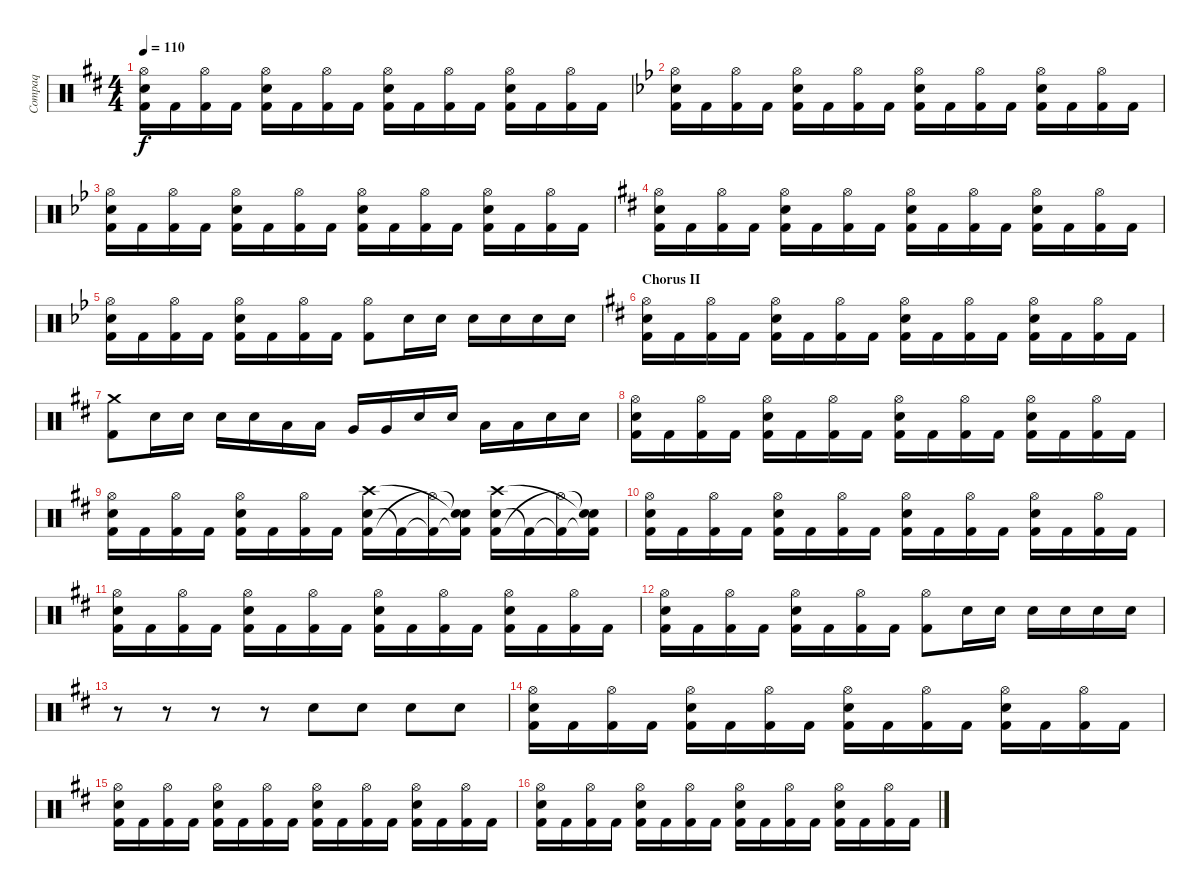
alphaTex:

\track ("Compaq" "Compaq") {instrument percussion}
\staff {score}
\articulation defaults
\ts (4 4)
\tempo 110
\clef neutral
\ks bminor
("Electric Snare (hit)" "Kick (hit) 2" "Hi-Hat (open)").16{dy f} "Kick (hit) 2".16 ("Kick (hit) 2" "Hi-Hat (open)").16 "Kick (hit) 2".16 ("Electric Snare (hit)" "Kick (hit) 2" "Hi-Hat (open)").16 "Kick (hit) 2".16 ("Kick (hit) 2" "Hi-Hat (open)").16 "Kick (hit) 2".16 ("Electric Snare (hit)" "Kick (hit) 2" "Hi-Hat (open)").16 "Kick (hit) 2".16 ("Kick (hit) 2" "Hi-Hat (open)").16 "Kick (hit) 2".16 ("Electric Snare (hit)" "Kick (hit) 2" "Hi-Hat (open)").16 "Kick (hit) 2".16 ("Kick (hit) 2" "Hi-Hat (open)").16 "Kick (hit) 2".16 |
\ks bb
("Electric Snare (hit)" "Kick (hit) 2" "Hi-Hat (open)").16 "Kick (hit) 2".16 ("Kick (hit) 2" "Hi-Hat (open)").16 "Kick (hit) 2".16 ("Electric Snare (hit)" "Kick (hit) 2" "Hi-Hat (open)").16 "Kick (hit) 2".16 ("Kick (hit) 2" "Hi-Hat (open)").16 "Kick (hit) 2".16 ("Electric Snare (hit)" "Kick (hit) 2" "Hi-Hat (open)").16 "Kick (hit) 2".16 ("Kick (hit) 2" "Hi-Hat (open)").16 "Kick (hit) 2".16 ("Electric Snare (hit)" "Kick (hit) 2" "Hi-Hat (open)").16 "Kick (hit) 2".16 ("Kick (hit) 2" "Hi-Hat (open)").16 "Kick (hit) 2".16 |
("Electric Snare (hit)" "Kick (hit) 2" "Hi-Hat (open)").16 "Kick (hit) 2".16 ("Kick (hit) 2" "Hi-Hat (open)").16 "Kick (hit) 2".16 ("Electric Snare (hit)" "Kick (hit) 2" "Hi-Hat (open)").16 "Kick (hit) 2".16 ("Kick (hit) 2" "Hi-Hat (open)").16 "Kick (hit) 2".16 ("Electric Snare (hit)" "Kick (hit) 2" "Hi-Hat (open)").16 "Kick (hit) 2".16 ("Kick (hit) 2" "Hi-Hat (open)").16 "Kick (hit) 2".16 ("Electric Snare (hit)" "Kick (hit) 2" "Hi-Hat (open)").16 "Kick (hit) 2".16 ("Kick (hit) 2" "Hi-Hat (open)").16 "Kick (hit) 2".16 |
\ks bminor
("Electric Snare (hit)" "Kick (hit) 2" "Hi-Hat (open)").16 "Kick (hit) 2".16 ("Kick (hit) 2" "Hi-Hat (open)").16 "Kick (hit) 2".16 ("Electric Snare (hit)" "Kick (hit) 2" "Hi-Hat (open)").16 "Kick (hit) 2".16 ("Kick (hit) 2" "Hi-Hat (open)").16 "Kick (hit) 2".16 ("Electric Snare (hit)" "Kick (hit) 2" "Hi-Hat (open)").16 "Kick (hit) 2".16 ("Kick (hit) 2" "Hi-Hat (open)").16 "Kick (hit) 2".16 ("Electric Snare (hit)" "Kick (hit) 2" "Hi-Hat (open)").16 "Kick (hit) 2".16 ("Kick (hit) 2" "Hi-Hat (open)").16 "Kick (hit) 2".16 |
\ks bb
("Electric Snare (hit)" "Kick (hit) 2" "Hi-Hat (open)").16 "Kick (hit) 2".16 ("Kick (hit) 2" "Hi-Hat (open)").16 "Kick (hit) 2".16 ("Electric Snare (hit)" "Kick (hit) 2" "Hi-Hat (open)").16 "Kick (hit) 2".16 ("Kick (hit) 2" "Hi-Hat (open)").16 "Kick (hit) 2".16 ("Hi-Hat (open)" "Kick (hit) 2").8 "Electric Snare (hit)".16 "Electric Snare (hit)".16 "Electric Snare (hit)".16 "Electric Snare (hit)".16 "Electric Snare (hit)".16 "Electric Snare (hit)".16 |
\section ("" "Chorus II")
\ks bminor
("Electric Snare (hit)" "Kick (hit) 2" "Hi-Hat (open)").16 "Kick (hit) 2".16 ("Kick (hit) 2" "Hi-Hat (open)").16 "Kick (hit) 2".16 ("Electric Snare (hit)" "Kick (hit) 2" "Hi-Hat (open)").16 "Kick (hit) 2".16 ("Kick (hit) 2" "Hi-Hat (open)").16 "Kick (hit) 2".16 ("Electric Snare (hit)" "Kick (hit) 2" "Hi-Hat (open)").16 "Kick (hit) 2".16 ("Kick (hit) 2" "Hi-Hat (open)").16 "Kick (hit) 2".16 ("Electric Snare (hit)" "Kick (hit) 2" "Hi-Hat (open)").16 "Kick (hit) 2".16 ("Kick (hit) 2" "Hi-Hat (open)").16 "Kick (hit) 2".16 |
("Crash medium (hit)" "Kick (hit) 2").8 "Electric Snare (hit)".16 "Electric Snare (hit)".16 "Electric Snare (hit)".16 "Electric Snare (hit)".16 "Low Tom (hit)".16 "Low Tom (hit)".16 "Very Low Tom (hit)".16 "Very Low Tom (hit)".16 "Electric Snare (hit)".16 "Electric Snare (hit)".16 "Low Floor Tom (hit)".16 "Low Floor Tom (hit)".16 "Electric Snare (hit)".16 "Electric Snare (hit)".16 |
("Electric Snare (hit)" "Kick (hit) 2" "Hi-Hat (open)").16 "Kick (hit) 2".16 ("Kick (hit) 2" "Hi-Hat (open)").16 "Kick (hit) 2".16 ("Electric Snare (hit)" "Kick (hit) 2" "Hi-Hat (open)").16 "Kick (hit) 2".16 ("Kick (hit) 2" "Hi-Hat (open)").16 "Kick (hit) 2".16 ("Electric Snare (hit)" "Kick (hit) 2" "Hi-Hat (open)").16 "Kick (hit) 2".16 ("Kick (hit) 2" "Hi-Hat (open)").16 "Kick (hit) 2".16 ("Electric Snare (hit)" "Kick (hit) 2" "Hi-Hat (open)").16 "Kick (hit) 2".16 ("Kick (hit) 2" "Hi-Hat (open)").16 "Kick (hit) 2".16 |
("Electric Snare (hit)" "Kick (hit) 2" "Hi-Hat (open)").16 "Kick (hit) 2".16 ("Kick (hit) 2" "Hi-Hat (open)").16 "Kick (hit) 2".16 ("Electric Snare (hit)" "Kick (hit) 2" "Hi-Hat (open)").16 "Kick (hit) 2".16 ("Kick (hit) 2" "Hi-Hat (open)").16 "Kick (hit) 2".16 ("Electric Snare (hit)" "Kick (hit) 2" "Crash high (hit)").16 "Kick (hit) 2"{t}.16 ("Kick (hit) 2"{t} "Hi-Hat (open)"{t}).16 ("Kick (hit) 2"{t} "Snare (hit)"{t} "Snare (hit)"{t}).16 ("Electric Snare (hit)" "Kick (hit) 2" "Crash high (hit)").16 "Kick (hit) 2"{t}.16 ("Kick (hit) 2"{t} "Hi-Hat (open)"{t}).16 ("Kick (hit) 2"{t} "Snare (hit)"{t} "Snare (hit)"{t}).16 |
("Electric Snare (hit)" "Kick (hit) 2" "Hi-Hat (open)").16 "Kick (hit) 2".16 ("Kick (hit) 2" "Hi-Hat (open)").16 "Kick (hit) 2".16 ("Electric Snare (hit)" "Kick (hit) 2" "Hi-Hat (open)").16 "Kick (hit) 2".16 ("Kick (hit) 2" "Hi-Hat (open)").16 "Kick (hit) 2".16 ("Electric Snare (hit)" "Kick (hit) 2" "Hi-Hat (open)").16 "Kick (hit) 2".16 ("Kick (hit) 2" "Hi-Hat (open)").16 "Kick (hit) 2".16 ("Electric Snare (hit)" "Kick (hit) 2" "Hi-Hat (open)").16 "Kick (hit) 2".16 ("Kick (hit) 2" "Hi-Hat (open)").16 "Kick (hit) 2".16 |
("Electric Snare (hit)" "Kick (hit) 2" "Hi-Hat (open)").16 "Kick (hit) 2".16 ("Kick (hit) 2" "Hi-Hat (open)").16 "Kick (hit) 2".16 ("Electric Snare (hit)" "Kick (hit) 2" "Hi-Hat (open)").16 "Kick (hit) 2".16 ("Kick (hit) 2" "Hi-Hat (open)").16 "Kick (hit) 2".16 ("Electric Snare (hit)" "Kick (hit) 2" "Hi-Hat (open)").16 "Kick (hit) 2".16 ("Kick (hit) 2" "Hi-Hat (open)").16 "Kick (hit) 2".16 ("Electric Snare (hit)" "Kick (hit) 2" "Hi-Hat (open)").16 "Kick (hit) 2".16 ("Kick (hit) 2" "Hi-Hat (open)").16 "Kick (hit) 2".16 |
("Electric Snare (hit)" "Kick (hit) 2" "Hi-Hat (open)").16 "Kick (hit) 2".16 ("Kick (hit) 2" "Hi-Hat (open)").16 "Kick (hit) 2".16 ("Electric Snare (hit)" "Kick (hit) 2" "Hi-Hat (open)").16 "Kick (hit) 2".16 ("Kick (hit) 2" "Hi-Hat (open)").16 "Kick (hit) 2".16 ("Hi-Hat (open)" "Kick (hit) 2").8 "Electric Snare (hit)".16 "Electric Snare (hit)".16 "Electric Snare (hit)".16 "Electric Snare (hit)".16 "Electric Snare (hit)".16 "Electric Snare (hit)".16 |
r.8 r.8 r.8 r.8 "Electric Snare (hit)".8 "Electric Snare (hit)".8 "Electric Snare (hit)".8 "Electric Snare (hit)".8 |
("Electric Snare (hit)" "Kick (hit) 2" "Hi-Hat (open)").16 "Kick (hit) 2".16 ("Kick (hit) 2" "Hi-Hat (open)").16 "Kick (hit) 2".16 ("Electric Snare (hit)" "Kick (hit) 2" "Hi-Hat (open)").16 "Kick (hit) 2".16 ("Kick (hit) 2" "Hi-Hat (open)").16 "Kick (hit) 2".16 ("Electric Snare (hit)" "Kick (hit) 2" "Hi-Hat (open)").16 "Kick (hit) 2".16 ("Kick (hit) 2" "Hi-Hat (open)").16 "Kick (hit) 2".16 ("Electric Snare (hit)" "Kick (hit) 2" "Hi-Hat (open)").16 "Kick (hit) 2".16 ("Kick (hit) 2" "Hi-Hat (open)").16 "Kick (hit) 2".16 |
("Electric Snare (hit)" "Kick (hit) 2" "Hi-Hat (open)").16 "Kick (hit) 2".16 ("Kick (hit) 2" "Hi-Hat (open)").16 "Kick (hit) 2".16 ("Electric Snare (hit)" "Kick (hit) 2" "Hi-Hat (open)").16 "Kick (hit) 2".16 ("Kick (hit) 2" "Hi-Hat (open)").16 "Kick (hit) 2".16 ("Electric Snare (hit)" "Kick (hit) 2" "Hi-Hat (open)").16 "Kick (hit) 2".16 ("Kick (hit) 2" "Hi-Hat (open)").16 "Kick (hit) 2".16 ("Electric Snare (hit)" "Kick (hit) 2" "Hi-Hat (open)").16 "Kick (hit) 2".16 ("Kick (hit) 2" "Hi-Hat (open)").16 "Kick (hit) 2".16 |
("Electric Snare (hit)" "Kick (hit) 2" "Hi-Hat (open)").16 "Kick (hit) 2".16 ("Kick (hit) 2" "Hi-Hat (open)").16 "Kick (hit) 2".16 ("Electric Snare (hit)" "Kick (hit) 2" "Hi-Hat (open)").16 "Kick (hit) 2".16 ("Kick (hit) 2" "Hi-Hat (open)").16 "Kick (hit) 2".16 ("Electric Snare (hit)" "Kick (hit) 2" "Hi-Hat (open)").16 "Kick (hit) 2".16 ("Kick (hit) 2" "Hi-Hat (open)").16 "Kick (hit) 2".16 ("Electric Snare (hit)" "Kick (hit) 2" "Hi-Hat (open)").16 "Kick (hit) 2".16 ("Kick (hit) 2" "Hi-Hat (open)").16 "Kick (hit) 2".16
